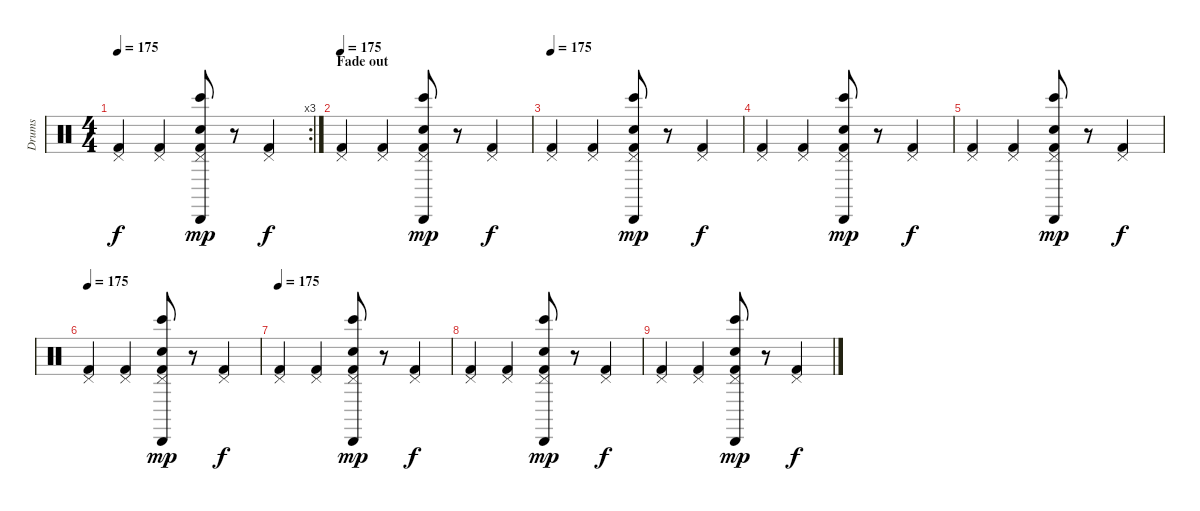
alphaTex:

\track ("Drums" "Drums") {instrument percussion}
\staff {score}
\articulation defaults
\rc 3
\ts (4 4)
\tempo 175
\clef neutral
\ks c
("Pedal Hi-Hat (hit)" "Kick (hit) 2").4{dy f} ("Pedal Hi-Hat (hit)" "Kick (hit) 2").4 ("Cabasa (hit)" "Bongo High (hit)" "Pedal Hi-Hat (hit)" "Snare (hit) 2" "Kick (hit) 2").8{dy mp} r.8{volume 0} ("Pedal Hi-Hat (hit)" "Kick (hit) 2").4{dy f volume 14} |
\section ("" "Fade out")
\tempo 175
("Pedal Hi-Hat (hit)" "Kick (hit) 2").4{volume 8} ("Pedal Hi-Hat (hit)" "Kick (hit) 2").4 ("Cabasa (hit)" "Bongo High (hit)" "Pedal Hi-Hat (hit)" "Snare (hit) 2" "Kick (hit) 2").8{dy mp} r.8 ("Pedal Hi-Hat (hit)" "Kick (hit) 2").4{dy f} |
\tempo 175
("Pedal Hi-Hat (hit)" "Kick (hit) 2").4 ("Pedal Hi-Hat (hit)" "Kick (hit) 2").4 ("Cabasa (hit)" "Bongo High (hit)" "Pedal Hi-Hat (hit)" "Snare (hit) 2" "Kick (hit) 2").8{dy mp} r.8 ("Pedal Hi-Hat (hit)" "Kick (hit) 2").4{dy f} |
("Pedal Hi-Hat (hit)" "Kick (hit) 2").4{volume 6} ("Pedal Hi-Hat (hit)" "Kick (hit) 2").4 ("Cabasa (hit)" "Bongo High (hit)" "Pedal Hi-Hat (hit)" "Snare (hit) 2" "Kick (hit) 2").8{dy mp} r.8 ("Pedal Hi-Hat (hit)" "Kick (hit) 2").4{dy f} |
("Pedal Hi-Hat (hit)" "Kick (hit) 2").4 ("Pedal Hi-Hat (hit)" "Kick (hit) 2").4 ("Cabasa (hit)" "Bongo High (hit)" "Pedal Hi-Hat (hit)" "Snare (hit) 2" "Kick (hit) 2").8{dy mp} r.8 ("Pedal Hi-Hat (hit)" "Kick (hit) 2").4{dy f} |
\tempo 175
("Pedal Hi-Hat (hit)" "Kick (hit) 2").4{volume 3} ("Pedal Hi-Hat (hit)" "Kick (hit) 2").4 ("Cabasa (hit)" "Bongo High (hit)" "Pedal Hi-Hat (hit)" "Snare (hit) 2" "Kick (hit) 2").8{dy mp} r.8 ("Pedal Hi-Hat (hit)" "Kick (hit) 2").4{dy f} |
\tempo 175
("Pedal Hi-Hat (hit)" "Kick (hit) 2").4 ("Pedal Hi-Hat (hit)" "Kick (hit) 2").4 ("Cabasa (hit)" "Bongo High (hit)" "Pedal Hi-Hat (hit)" "Snare (hit) 2" "Kick (hit) 2").8{dy mp} r.8 ("Pedal Hi-Hat (hit)" "Kick (hit) 2").4{dy f} |
("Pedal Hi-Hat (hit)" "Kick (hit) 2").4{volume 0} ("Pedal Hi-Hat (hit)" "Kick (hit) 2").4 ("Cabasa (hit)" "Bongo High (hit)" "Pedal Hi-Hat (hit)" "Snare (hit) 2" "Kick (hit) 2").8{dy mp} r.8 ("Pedal Hi-Hat (hit)" "Kick (hit) 2").4{dy f} |
("Pedal Hi-Hat (hit)" "Kick (hit) 2").4 ("Pedal Hi-Hat (hit)" "Kick (hit) 2").4 ("Cabasa (hit)" "Bongo High (hit)" "Pedal Hi-Hat (hit)" "Snare (hit) 2" "Kick (hit) 2").8{dy mp} r.8 ("Pedal Hi-Hat (hit)" "Kick (hit) 2").4{dy f}
